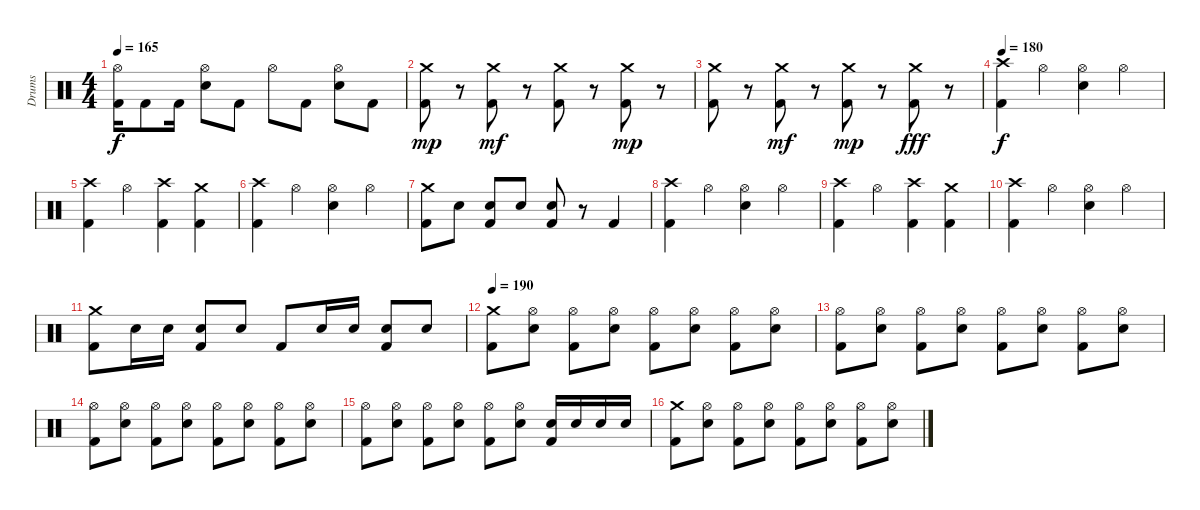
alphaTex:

\track ("Drums" "Drums") {instrument percussion}
\staff {score}
\articulation defaults
\ts (4 4)
\tempo 165
\clef neutral
\ks c
("Hi-Hat (open)" "Kick (hit) 2").16{dy f} "Kick (hit) 2".8 "Kick (hit) 2".16 ("Hi-Hat (open)" "Snare (hit) 2").8 "Kick (hit) 2".8 "Hi-Hat (open)".8 "Kick (hit) 2".8 ("Hi-Hat (open)" "Snare (hit) 2").8 "Kick (hit) 2".8 |
("Crash medium (hit)" "Kick (hit) 2").8{dy mp} r.8 ("Crash medium (hit)" "Kick (hit) 2").8{dy mf} r.8 ("Crash medium (hit)" "Kick (hit) 2").8 r.8 ("Crash medium (hit)" "Kick (hit) 2").8{dy mp} r.8 |
("Crash medium (hit)" "Kick (hit) 2").8 r.8 ("Crash medium (hit)" "Kick (hit) 2").8{dy mf} r.8 ("Crash medium (hit)" "Kick (hit) 2").8{dy mp} r.8 ("Crash medium (hit)" "Kick (hit) 2").8{dy fff} r.8 |
\tempo 180
("Crash high (hit)" "Kick (hit) 2").4{dy f} "Hi-Hat (open)".4 ("Hi-Hat (open)" "Snare (hit) 2").4 "Hi-Hat (open)".4 |
("Crash high (hit)" "Kick (hit) 2").4 "Hi-Hat (open)".4 ("Crash high (hit)" "Kick (hit) 2").4 ("Crash medium (hit)" "Kick (hit) 2").4 |
("Crash high (hit)" "Kick (hit) 2").4 "Hi-Hat (open)".4 ("Hi-Hat (open)" "Snare (hit) 2").4 "Hi-Hat (open)".4 |
("Crash medium (hit)" "Kick (hit) 2").8 "Snare (hit) 2".8 ("Snare (hit) 2" "Kick (hit) 2").8 "Snare (hit) 2".8 ("Snare (hit) 2" "Kick (hit) 2").8 r.8 "Kick (hit) 2".4 |
("Crash high (hit)" "Kick (hit) 2").4 "Hi-Hat (open)".4 ("Hi-Hat (open)" "Snare (hit) 2").4 "Hi-Hat (open)".4 |
("Crash high (hit)" "Kick (hit) 2").4 "Hi-Hat (open)".4 ("Crash high (hit)" "Kick (hit) 2").4 ("Crash medium (hit)" "Kick (hit) 2").4 |
("Crash high (hit)" "Kick (hit) 2").4 "Hi-Hat (open)".4 ("Hi-Hat (open)" "Snare (hit) 2").4 "Hi-Hat (open)".4 |
("Crash medium (hit)" "Kick (hit) 2").8 "Snare (hit) 2".16 "Snare (hit) 2".16 ("Snare (hit) 2" "Kick (hit) 2").8 "Snare (hit) 2".8 "Kick (hit) 2".8 "Snare (hit) 2".16 "Snare (hit) 2".16 ("Snare (hit) 2" "Kick (hit) 2").8 "Snare (hit) 2".8 |
\tempo 190
("Crash medium (hit)" "Kick (hit) 2").8 ("Hi-Hat (open)" "Snare (hit) 2").8 ("Hi-Hat (open)" "Kick (hit) 2").8 ("Hi-Hat (open)" "Snare (hit) 2").8 ("Hi-Hat (open)" "Kick (hit) 2").8 ("Hi-Hat (open)" "Snare (hit) 2").8 ("Hi-Hat (open)" "Kick (hit) 2").8 ("Hi-Hat (open)" "Snare (hit) 2").8 |
("Hi-Hat (open)" "Kick (hit) 2").8 ("Hi-Hat (open)" "Snare (hit) 2").8 ("Hi-Hat (open)" "Kick (hit) 2").8 ("Hi-Hat (open)" "Snare (hit) 2").8 ("Hi-Hat (open)" "Kick (hit) 2").8 ("Hi-Hat (open)" "Snare (hit) 2").8 ("Hi-Hat (open)" "Kick (hit) 2").8 ("Hi-Hat (open)" "Snare (hit) 2").8 |
("Hi-Hat (open)" "Kick (hit) 2").8 ("Hi-Hat (open)" "Snare (hit) 2").8 ("Hi-Hat (open)" "Kick (hit) 2").8 ("Hi-Hat (open)" "Snare (hit) 2").8 ("Hi-Hat (open)" "Kick (hit) 2").8 ("Hi-Hat (open)" "Snare (hit) 2").8 ("Hi-Hat (open)" "Kick (hit) 2").8 ("Hi-Hat (open)" "Snare (hit) 2").8 |
("Hi-Hat (open)" "Kick (hit) 2").8 ("Hi-Hat (open)" "Snare (hit) 2").8 ("Hi-Hat (open)" "Kick (hit) 2").8 ("Hi-Hat (open)" "Snare (hit) 2").8 ("Hi-Hat (open)" "Kick (hit) 2").8 ("Hi-Hat (open)" "Snare (hit) 2").8 ("Snare (hit) 2" "Kick (hit) 2").16 "Snare (hit) 2".16 "Snare (hit) 2".16 "Snare (hit) 2".16 |
("Crash medium (hit)" "Kick (hit) 2").8 ("Hi-Hat (open)" "Snare (hit) 2").8 ("Hi-Hat (open)" "Kick (hit) 2").8 ("Hi-Hat (open)" "Snare (hit) 2").8 ("Hi-Hat (open)" "Kick (hit) 2").8 ("Hi-Hat (open)" "Snare (hit) 2").8 ("Hi-Hat (open)" "Kick (hit) 2").8 ("Hi-Hat (open)" "Snare (hit) 2").8
